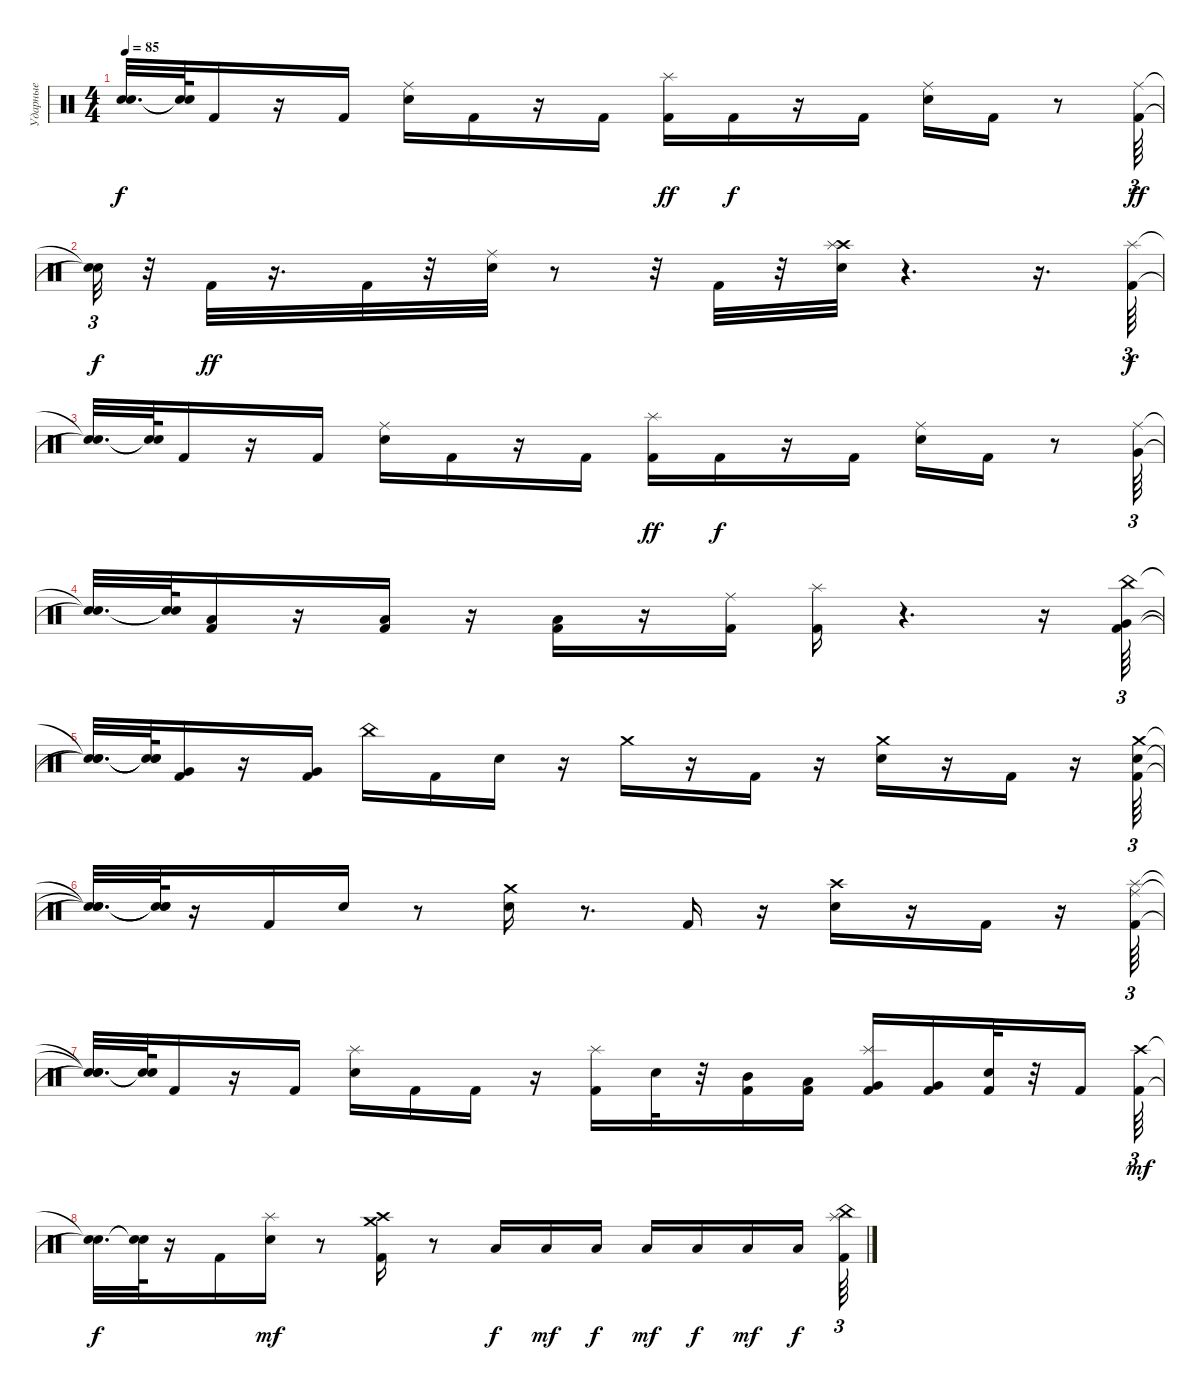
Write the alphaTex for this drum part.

\track ("Ударные" "Ударные") {instrument percussion}
\staff {score}
\articulation defaults
\ts (4 4)
\tempo 85
\clef neutral
\ks c
("Snare (hit)"{t} "Snare (hit)"{t}).32{d dy f} ("Snare (hit)"{t} "Snare (hit)"{t}).64 "Kick (hit) 2".16 r.16 "Kick (hit) 2".16 ("Snare (hit) 2" "Ride (middle)").16 "Kick (hit) 2".16 r.16 "Kick (hit) 2".16 ("Kick (hit) 2" "Splash (hit)").16{dy ff} "Kick (hit) 2".16{dy f} r.16 "Kick (hit) 2".16 ("Ride (middle)" "Snare (hit) 2").16 "Kick (hit) 2".16 r.8 ("Ride (middle)" "Kick (hit) 2").64{tu (3 2) dy ff} |
("Snare (hit)"{t} "Snare (hit)"{t}).32{tu (3 2) dy f} r.32 "Kick (hit) 2".32{dy ff} r.16{d} "Kick (hit) 2".32 r.32 ("Ride (middle)" "Snare (hit) 2").32 r.8 r.32 "Kick (hit) 2".32 r.32 ("Crash high (hit)" "Splash (hit)" "Snare (hit) 2").32 r.4{d} r.16{d} ("Splash (hit)" "Kick (hit) 2").64{tu (3 2) dy f} |
("Snare (hit)"{t} "Snare (hit)"{t}).32{d} ("Snare (hit)"{t} "Snare (hit)"{t}).64 "Kick (hit) 2".16 r.16 "Kick (hit) 2".16 ("Snare (hit) 2" "Ride (middle)").16 "Kick (hit) 2".16 r.16 "Kick (hit) 2".16 ("Kick (hit) 2" "Splash (hit)").16{dy ff} "Kick (hit) 2".16{dy f} r.16 "Kick (hit) 2".16 ("Ride (middle)" "Snare (hit) 2").16 "Kick (hit) 2".16 r.8 ("Very Low Tom (hit)" "Ride (middle)").64{tu (3 2)} |
("Snare (hit)"{t} "Snare (hit)"{t}).32{d} ("Snare (hit)"{t} "Snare (hit)"{t}).64 ("Low Floor Tom (hit)" "Kick (hit) 2").16 r.16 ("Low Floor Tom (hit)" "Kick (hit) 2").16 r.16 ("Low Floor Tom (hit)" "Kick (hit) 2").16 r.16 ("Kick (hit) 2" "Ride (middle)").16 ("Kick (hit) 2" "Splash (hit)").16 r.4{d} r.16 ("China (hit)" "Kick (hit) 2" "Very Low Tom (hit)").64{tu (3 2)} |
("Snare (hit)"{t} "Snare (hit)"{t} "Snare (hit)"{t}).32{d} ("Snare (hit)"{t} "Snare (hit)"{t} "Snare (hit)"{t}).64 ("Kick (hit) 2" "Very Low Tom (hit)").16 r.16 ("Very Low Tom (hit)" "Kick (hit) 2").16 "China (hit)".16 "Kick (hit) 2".16 "Snare (hit) 2".16 r.16 "Crash medium (hit)".16 r.16 "Kick (hit) 2".16 r.16 ("Crash medium (hit)" "Snare (hit) 2").16 r.16 "Kick (hit) 2".16 r.16 ("Crash medium (hit)" "Snare (hit) 2" "Kick (hit) 2").64{tu (3 2)} |
("Snare (hit)"{t} "Snare (hit)"{t} "Snare (hit)"{t}).32{d} ("Snare (hit)"{t} "Snare (hit)"{t} "Snare (hit)"{t}).64 r.16 "Kick (hit) 2".16 "Snare (hit) 2".16 r.8 ("Crash medium (hit)" "Snare (hit) 2").16 r.8{d} "Kick (hit) 2".16 r.16 ("Crash high (hit)" "Snare (hit) 2").16 r.16 "Kick (hit) 2".16 r.16 ("Ride (middle)" "Kick (hit) 2" "Splash (hit)").64{tu (3 2)} |
("Snare (hit)"{t} "Snare (hit)"{t} "Snare (hit)"{t}).32{d} ("Snare (hit)"{t} "Snare (hit)"{t}).64 "Kick (hit) 2".16 r.16 "Kick (hit) 2".16 ("Splash (hit)" "Snare (hit) 2").16 "Kick (hit) 2".16 "Kick (hit) 2".16 r.16 ("Splash (hit)" "Kick (hit) 2").16 "Electric Snare (hit)".32 r.32 ("Mid Tom (hit)" "Kick (hit) 2").16 ("Low Tom (hit)" "Kick (hit) 2").16 ("Splash (hit)" "Very Low Tom (hit)" "Kick (hit) 2").16 ("Very Low Tom (hit)" "Kick (hit) 2").16 ("Electric Snare (hit)" "Kick (hit) 2").32 r.32 "Kick (hit) 2".16 ("Kick (hit) 2" "Crash high (hit)").64{tu (3 2) dy mf} |
("Snare (hit)"{t} "Snare (hit)"{t}).32{d dy f} ("Snare (hit)"{t} "Snare (hit)"{t}).64 r.16 "Kick (hit) 2".16 ("Splash (hit)" "Snare (hit) 2").16{dy mf} r.8 ("Crash medium (hit)" "Kick (hit) 2" "Crash high (hit)").16 r.8 "Low Floor Tom (hit)".16{dy f} "Low Floor Tom (hit)".16{dy mf} "Low Floor Tom (hit)".16{dy f} "Low Floor Tom (hit)".16{dy mf} "Low Floor Tom (hit)".16{dy f} "Low Floor Tom (hit)".16{dy mf} "Low Floor Tom (hit)".16{dy f} ("China (hit)" "Splash (hit)" "Kick (hit) 2").64{tu (3 2)}
